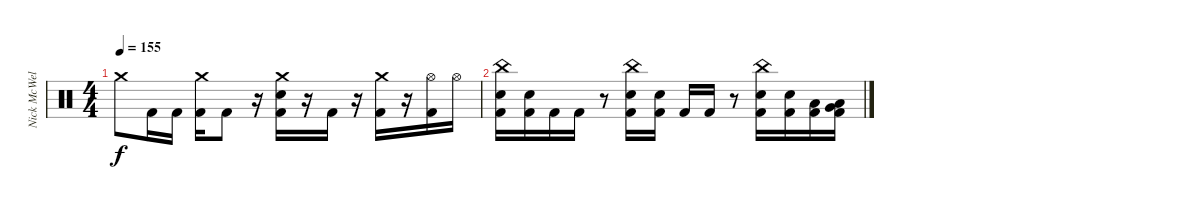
\track ("Nick McWells" "Nick McWel") {instrument percussion}
\staff {score}
\articulation defaults
\ts (4 4)
\tempo 155
\clef neutral
\ks c "Crash medium (hit)".8{dy f} "Kick (hit) 2".16 "Kick (hit) 2".16
("Crash medium (hit)" "Kick (hit) 2").16 "Kick (hit) 2".8 r.16 ("Crash medium (hit)" "Electric Snare (hit)" "Kick (hit) 2").16 r.16 "Kick (hit) 2".16 r.16 ("Crash medium (hit)" "Kick (hit) 2").16 r.16 ("Hi-Hat (open)" "Kick (hit) 2").16 "Hi-Hat (open)".16 |
("China (hit)" "Electric Snare (hit)" "Kick (hit) 2").16 ("Electric Snare (hit)" "Kick (hit) 2").16 "Kick (hit) 2".16 "Kick (hit) 2".16 r.8 ("China (hit)" "Electric Snare (hit)" "Kick (hit) 2").16 ("Electric Snare (hit)" "Kick (hit) 2").16 "Kick (hit) 2".16 "Kick (hit) 2".16 r.8 ("China (hit)" "Electric Snare (hit)" "Kick (hit) 2").16 ("Electric Snare (hit)" "Kick (hit) 2").16 ("Low Tom (hit)" "Kick (hit) 2").16 ("Very Low Tom (hit)" "Low Tom (hit)" "Kick (hit) 2").16
